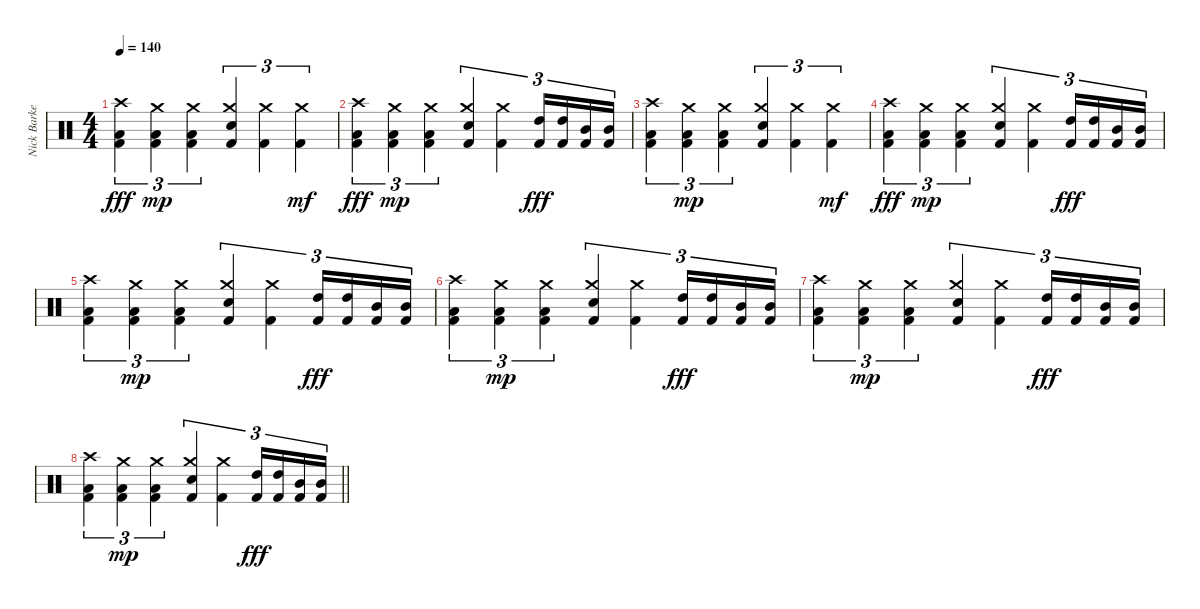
\track ("Nick Barker - Drums - Percussion" "Nick Barke") {instrument percussion}
\staff {score}
\articulation defaults
\ts (4 4)
\tempo 140
\clef neutral
\ks c
("Kick (hit) 2" "Low Floor Tom (hit)" "Crash high (hit)").4{tu (3 2) dy fff} ("Kick (hit) 2" "Low Floor Tom (hit)" "Crash medium (hit)").4{tu (3 2) dy mp} ("Kick (hit) 2" "Low Floor Tom (hit)" "Crash medium (hit)").4{tu (3 2)} ("Kick (hit) 2" "Snare (hit) 2" "Crash medium (hit)").4{tu (3 2)} ("Kick (hit) 2" "Crash medium (hit)").4{tu (3 2)} ("Kick (hit) 2" "Crash medium (hit)").4{tu (3 2) dy mf} |
("Kick (hit) 2" "Low Floor Tom (hit)" "Crash high (hit)").4{tu (3 2) dy fff} ("Kick (hit) 2" "Low Floor Tom (hit)" "Crash medium (hit)").4{tu (3 2) dy mp} ("Kick (hit) 2" "Low Floor Tom (hit)" "Crash medium (hit)").4{tu (3 2)} ("Kick (hit) 2" "Snare (hit) 2" "Crash medium (hit)").4{tu (3 2)} ("Kick (hit) 2" "Crash medium (hit)").4{tu (3 2)} ("Kick (hit) 2" "High Tom (hit)").16{tu (3 2) dy fff} ("Kick (hit) 2" "High Tom (hit)").16{tu (3 2)} ("Kick (hit) 2" "Mid Tom (hit)").16{tu (3 2)} ("Kick (hit) 2" "Mid Tom (hit)").16{tu (3 2)} |
("Kick (hit) 2" "Low Floor Tom (hit)" "Crash high (hit)").4{tu (3 2)} ("Kick (hit) 2" "Low Floor Tom (hit)" "Crash medium (hit)").4{tu (3 2) dy mp} ("Kick (hit) 2" "Low Floor Tom (hit)" "Crash medium (hit)").4{tu (3 2)} ("Kick (hit) 2" "Snare (hit) 2" "Crash medium (hit)").4{tu (3 2)} ("Kick (hit) 2" "Crash medium (hit)").4{tu (3 2)} ("Kick (hit) 2" "Crash medium (hit)").4{tu (3 2) dy mf} |
("Kick (hit) 2" "Low Floor Tom (hit)" "Crash high (hit)").4{tu (3 2) dy fff} ("Kick (hit) 2" "Low Floor Tom (hit)" "Crash medium (hit)").4{tu (3 2) dy mp} ("Kick (hit) 2" "Low Floor Tom (hit)" "Crash medium (hit)").4{tu (3 2)} ("Kick (hit) 2" "Snare (hit) 2" "Crash medium (hit)").4{tu (3 2)} ("Kick (hit) 2" "Crash medium (hit)").4{tu (3 2)} ("Kick (hit) 2" "High Tom (hit)").16{tu (3 2) dy fff} ("Kick (hit) 2" "High Tom (hit)").16{tu (3 2)} ("Kick (hit) 2" "Mid Tom (hit)").16{tu (3 2)} ("Kick (hit) 2" "Mid Tom (hit)").16{tu (3 2)} |
("Kick (hit) 2" "Low Floor Tom (hit)" "Crash high (hit)").4{tu (3 2)} ("Kick (hit) 2" "Low Floor Tom (hit)" "Crash medium (hit)").4{tu (3 2) dy mp} ("Kick (hit) 2" "Low Floor Tom (hit)" "Crash medium (hit)").4{tu (3 2)} ("Kick (hit) 2" "Snare (hit) 2" "Crash medium (hit)").4{tu (3 2)} ("Kick (hit) 2" "Crash medium (hit)").4{tu (3 2)} ("Kick (hit) 2" "High Tom (hit)").16{tu (3 2) dy fff} ("Kick (hit) 2" "High Tom (hit)").16{tu (3 2)} ("Kick (hit) 2" "Mid Tom (hit)").16{tu (3 2)} ("Kick (hit) 2" "Mid Tom (hit)").16{tu (3 2)} |
("Kick (hit) 2" "Low Floor Tom (hit)" "Crash high (hit)").4{tu (3 2)} ("Kick (hit) 2" "Low Floor Tom (hit)" "Crash medium (hit)").4{tu (3 2) dy mp} ("Kick (hit) 2" "Low Floor Tom (hit)" "Crash medium (hit)").4{tu (3 2)} ("Kick (hit) 2" "Snare (hit) 2" "Crash medium (hit)").4{tu (3 2)} ("Kick (hit) 2" "Crash medium (hit)").4{tu (3 2)} ("Kick (hit) 2" "High Tom (hit)").16{tu (3 2) dy fff} ("Kick (hit) 2" "High Tom (hit)").16{tu (3 2)} ("Kick (hit) 2" "Mid Tom (hit)").16{tu (3 2)} ("Kick (hit) 2" "Mid Tom (hit)").16{tu (3 2)} |
("Kick (hit) 2" "Low Floor Tom (hit)" "Crash high (hit)").4{tu (3 2)} ("Kick (hit) 2" "Low Floor Tom (hit)" "Crash medium (hit)").4{tu (3 2) dy mp} ("Kick (hit) 2" "Low Floor Tom (hit)" "Crash medium (hit)").4{tu (3 2)} ("Kick (hit) 2" "Snare (hit) 2" "Crash medium (hit)").4{tu (3 2)} ("Kick (hit) 2" "Crash medium (hit)").4{tu (3 2)} ("Kick (hit) 2" "High Tom (hit)").16{tu (3 2) dy fff} ("Kick (hit) 2" "High Tom (hit)").16{tu (3 2)} ("Kick (hit) 2" "Mid Tom (hit)").16{tu (3 2)} ("Kick (hit) 2" "Mid Tom (hit)").16{tu (3 2)} |
\barLineRight lightlight
("Kick (hit) 2" "Low Floor Tom (hit)" "Crash high (hit)").4{tu (3 2)} ("Kick (hit) 2" "Low Floor Tom (hit)" "Crash medium (hit)").4{tu (3 2) dy mp} ("Kick (hit) 2" "Low Floor Tom (hit)" "Crash medium (hit)").4{tu (3 2)} ("Kick (hit) 2" "Snare (hit) 2" "Crash medium (hit)").4{tu (3 2)} ("Kick (hit) 2" "Crash medium (hit)").4{tu (3 2)} ("Kick (hit) 2" "High Tom (hit)").16{tu (3 2) dy fff} ("Kick (hit) 2" "High Tom (hit)").16{tu (3 2)} ("Kick (hit) 2" "Mid Tom (hit)").16{tu (3 2)} ("Kick (hit) 2" "Mid Tom (hit)").16{tu (3 2)}
